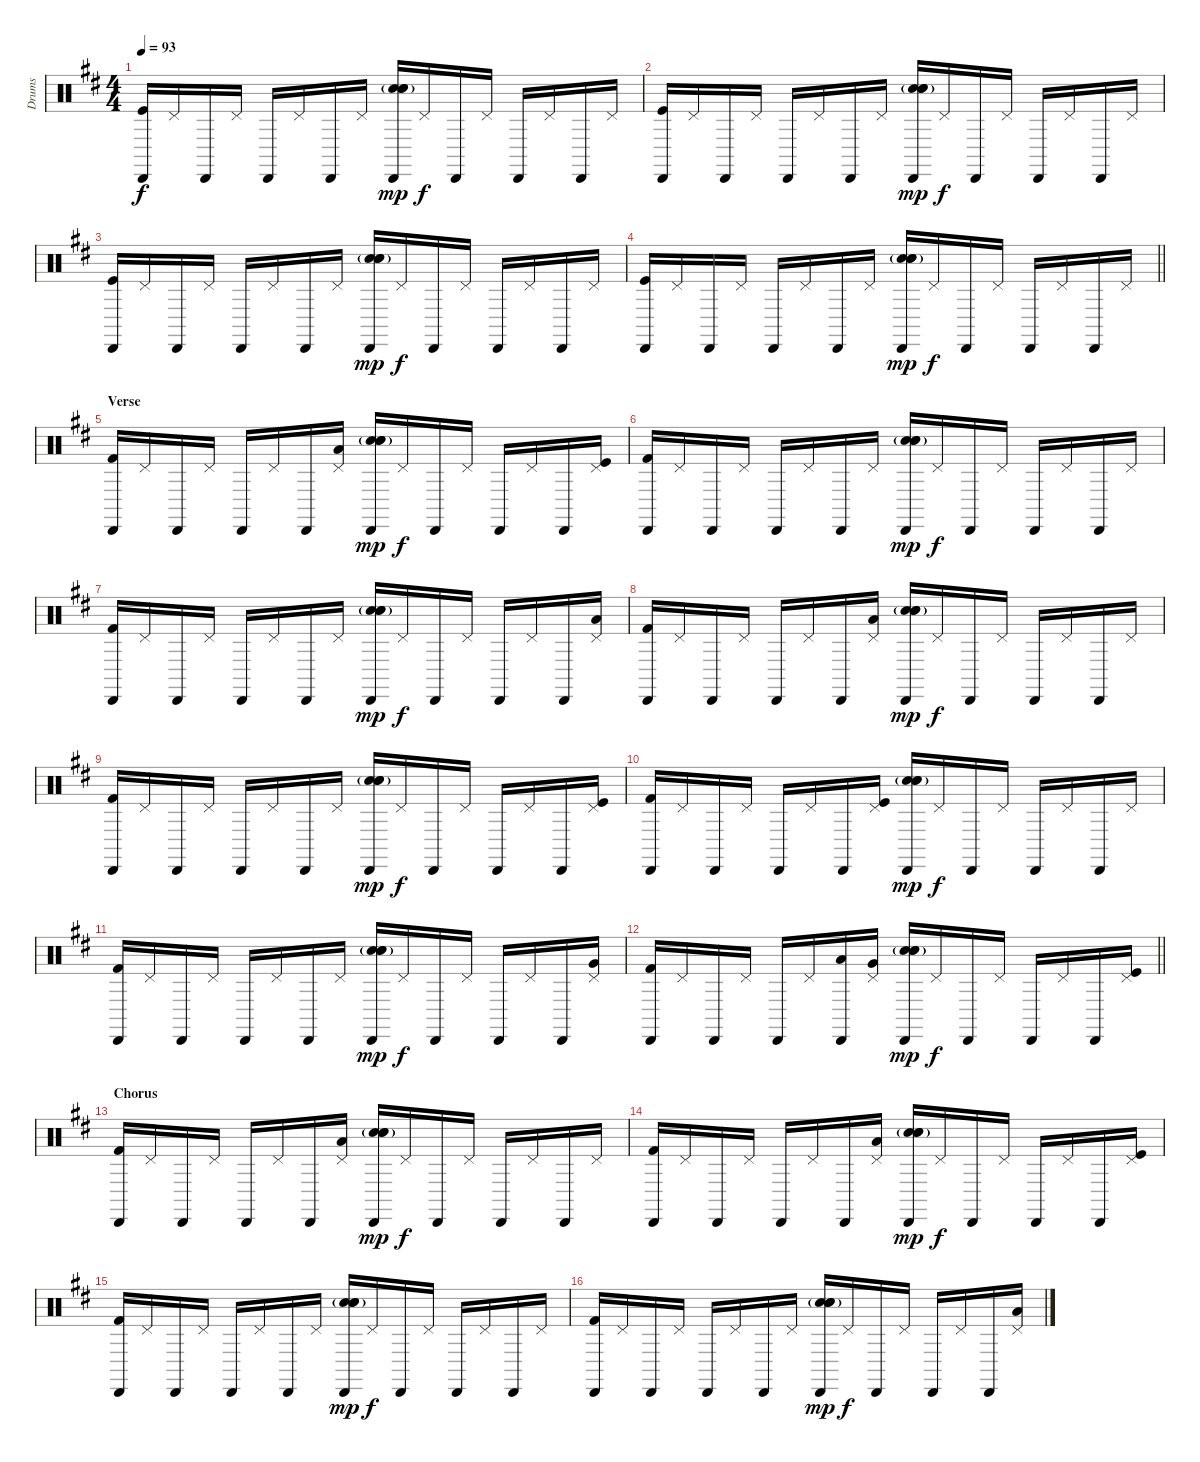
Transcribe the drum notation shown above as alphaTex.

\track ("Drums" "Drums") {instrument percussion}
\staff {score}
\articulation defaults
\ts (4 4)
\tempo 93
\clef neutral
\ks d
("Cabasa (hit)" "Kick (hit)").16{dy f} "Pedal Hi-Hat (hit)".16 "Cabasa (hit)".16 "Pedal Hi-Hat (hit)".16 "Cabasa (hit)".16 "Pedal Hi-Hat (hit)".16 "Cabasa (hit)".16 "Pedal Hi-Hat (hit)".16 ("Cabasa (hit)" "Snare (hit) 2"{g} "Electric Snare (hit)"{g} "Electric Snare (hit)").16{dy mp} "Pedal Hi-Hat (hit)".16{dy f} "Cabasa (hit)".16 "Pedal Hi-Hat (hit)".16 "Cabasa (hit)".16 "Pedal Hi-Hat (hit)".16 "Cabasa (hit)".16 "Pedal Hi-Hat (hit)".16 |
("Cabasa (hit)" "Kick (hit)").16 "Pedal Hi-Hat (hit)".16 "Cabasa (hit)".16 "Pedal Hi-Hat (hit)".16 "Cabasa (hit)".16 "Pedal Hi-Hat (hit)".16 "Cabasa (hit)".16 "Pedal Hi-Hat (hit)".16 ("Cabasa (hit)" "Snare (hit) 2"{g} "Electric Snare (hit)"{g} "Electric Snare (hit)").16{dy mp} "Pedal Hi-Hat (hit)".16{dy f} "Cabasa (hit)".16 "Pedal Hi-Hat (hit)".16 "Cabasa (hit)".16 "Pedal Hi-Hat (hit)".16 "Cabasa (hit)".16 "Pedal Hi-Hat (hit)".16 |
("Cabasa (hit)" "Kick (hit)").16 "Pedal Hi-Hat (hit)".16 "Cabasa (hit)".16 "Pedal Hi-Hat (hit)".16 "Cabasa (hit)".16 "Pedal Hi-Hat (hit)".16 "Cabasa (hit)".16 "Pedal Hi-Hat (hit)".16 ("Cabasa (hit)" "Snare (hit) 2"{g} "Electric Snare (hit)"{g} "Electric Snare (hit)").16{dy mp} "Pedal Hi-Hat (hit)".16{dy f} "Cabasa (hit)".16 "Pedal Hi-Hat (hit)".16 "Cabasa (hit)".16 "Pedal Hi-Hat (hit)".16 "Cabasa (hit)".16 "Pedal Hi-Hat (hit)".16 |
\barLineRight lightlight
("Cabasa (hit)" "Kick (hit)").16 "Pedal Hi-Hat (hit)".16 "Cabasa (hit)".16 "Pedal Hi-Hat (hit)".16 "Cabasa (hit)".16 "Pedal Hi-Hat (hit)".16 "Cabasa (hit)".16 "Pedal Hi-Hat (hit)".16 ("Cabasa (hit)" "Snare (hit) 2"{g} "Electric Snare (hit)"{g} "Electric Snare (hit)").16{dy mp} "Pedal Hi-Hat (hit)".16{dy f} "Cabasa (hit)".16 "Pedal Hi-Hat (hit)".16 "Cabasa (hit)".16 "Pedal Hi-Hat (hit)".16 "Cabasa (hit)".16 "Pedal Hi-Hat (hit)".16 |
\section ("" "Verse")
("Cabasa (hit)" "Kick (hit) 2").16 "Pedal Hi-Hat (hit)".16 "Cabasa (hit)".16 "Pedal Hi-Hat (hit)".16 "Cabasa (hit)".16 "Pedal Hi-Hat (hit)".16 "Cabasa (hit)".16 ("Pedal Hi-Hat (hit)" "Low Tom (hit)").16 ("Cabasa (hit)" "Snare (hit) 2"{g} "Electric Snare (hit)"{g} "Electric Snare (hit)").16{dy mp} "Pedal Hi-Hat (hit)".16{dy f} "Cabasa (hit)".16 "Pedal Hi-Hat (hit)".16 "Cabasa (hit)".16 "Pedal Hi-Hat (hit)".16 "Cabasa (hit)".16 ("Pedal Hi-Hat (hit)" "Kick (hit)").16 |
("Cabasa (hit)" "Kick (hit) 2").16 "Pedal Hi-Hat (hit)".16 "Cabasa (hit)".16 "Pedal Hi-Hat (hit)".16 "Cabasa (hit)".16 "Pedal Hi-Hat (hit)".16 "Cabasa (hit)".16 "Pedal Hi-Hat (hit)".16 ("Cabasa (hit)" "Snare (hit) 2"{g} "Electric Snare (hit)"{g} "Electric Snare (hit)").16{dy mp} "Pedal Hi-Hat (hit)".16{dy f} "Cabasa (hit)".16 "Pedal Hi-Hat (hit)".16 "Cabasa (hit)".16 "Pedal Hi-Hat (hit)".16 "Cabasa (hit)".16 "Pedal Hi-Hat (hit)".16 |
("Cabasa (hit)" "Kick (hit) 2").16 "Pedal Hi-Hat (hit)".16 "Cabasa (hit)".16 "Pedal Hi-Hat (hit)".16 "Cabasa (hit)".16 "Pedal Hi-Hat (hit)".16 "Cabasa (hit)".16 "Pedal Hi-Hat (hit)".16 ("Cabasa (hit)" "Snare (hit) 2"{g} "Electric Snare (hit)"{g} "Electric Snare (hit)").16{dy mp} "Pedal Hi-Hat (hit)".16{dy f} "Cabasa (hit)".16 "Pedal Hi-Hat (hit)".16 "Cabasa (hit)".16 "Pedal Hi-Hat (hit)".16 "Cabasa (hit)".16 ("Pedal Hi-Hat (hit)" "Low Tom (hit)").16 |
("Cabasa (hit)" "Kick (hit) 2").16 "Pedal Hi-Hat (hit)".16 "Cabasa (hit)".16 "Pedal Hi-Hat (hit)".16 "Cabasa (hit)".16 "Pedal Hi-Hat (hit)".16 "Cabasa (hit)".16 ("Pedal Hi-Hat (hit)" "Low Tom (hit)").16 ("Cabasa (hit)" "Snare (hit) 2"{g} "Electric Snare (hit)"{g} "Electric Snare (hit)").16{dy mp} "Pedal Hi-Hat (hit)".16{dy f} "Cabasa (hit)".16 "Pedal Hi-Hat (hit)".16 "Cabasa (hit)".16 "Pedal Hi-Hat (hit)".16 "Cabasa (hit)".16 "Pedal Hi-Hat (hit)".16 |
("Cabasa (hit)" "Kick (hit) 2").16 "Pedal Hi-Hat (hit)".16 "Cabasa (hit)".16 "Pedal Hi-Hat (hit)".16 "Cabasa (hit)".16 "Pedal Hi-Hat (hit)".16 "Cabasa (hit)".16 "Pedal Hi-Hat (hit)".16 ("Cabasa (hit)" "Snare (hit) 2"{g} "Electric Snare (hit)"{g} "Electric Snare (hit)").16{dy mp} "Pedal Hi-Hat (hit)".16{dy f} "Cabasa (hit)".16 "Pedal Hi-Hat (hit)".16 "Cabasa (hit)".16 "Pedal Hi-Hat (hit)".16 "Cabasa (hit)".16 ("Pedal Hi-Hat (hit)" "Kick (hit)").16 |
("Cabasa (hit)" "Kick (hit) 2").16 "Pedal Hi-Hat (hit)".16 "Cabasa (hit)".16 "Pedal Hi-Hat (hit)".16 "Cabasa (hit)".16 "Pedal Hi-Hat (hit)".16 "Cabasa (hit)".16 ("Pedal Hi-Hat (hit)" "Kick (hit)").16 ("Cabasa (hit)" "Snare (hit) 2"{g} "Electric Snare (hit)"{g} "Electric Snare (hit)").16{dy mp} "Pedal Hi-Hat (hit)".16{dy f} "Cabasa (hit)".16 "Pedal Hi-Hat (hit)".16 "Cabasa (hit)".16 "Pedal Hi-Hat (hit)".16 "Cabasa (hit)".16 "Pedal Hi-Hat (hit)".16 |
("Cabasa (hit)" "Kick (hit) 2").16 "Pedal Hi-Hat (hit)".16 "Cabasa (hit)".16 "Pedal Hi-Hat (hit)".16 "Cabasa (hit)".16 "Pedal Hi-Hat (hit)".16 "Cabasa (hit)".16 "Pedal Hi-Hat (hit)".16 ("Cabasa (hit)" "Snare (hit) 2"{g} "Electric Snare (hit)"{g} "Electric Snare (hit)").16{dy mp} "Pedal Hi-Hat (hit)".16{dy f} "Cabasa (hit)".16 "Pedal Hi-Hat (hit)".16 "Cabasa (hit)".16 "Pedal Hi-Hat (hit)".16 "Cabasa (hit)".16 ("Pedal Hi-Hat (hit)" "Very Low Tom (hit)").16 |
\barLineRight lightlight
("Cabasa (hit)" "Kick (hit) 2").16 "Pedal Hi-Hat (hit)".16 "Cabasa (hit)".16 "Pedal Hi-Hat (hit)".16 "Cabasa (hit)".16 "Pedal Hi-Hat (hit)".16 ("Cabasa (hit)" "Low Tom (hit)").16 ("Pedal Hi-Hat (hit)" "Very Low Tom (hit)").16 ("Cabasa (hit)" "Snare (hit) 2"{g} "Electric Snare (hit)"{g} "Electric Snare (hit)").16{dy mp} "Pedal Hi-Hat (hit)".16{dy f} "Cabasa (hit)".16 "Pedal Hi-Hat (hit)".16 "Cabasa (hit)".16 "Pedal Hi-Hat (hit)".16 "Cabasa (hit)".16 ("Pedal Hi-Hat (hit)" "Kick (hit)").16 |
\section ("" "Chorus")
("Cabasa (hit)" "Kick (hit) 2").16 "Pedal Hi-Hat (hit)".16 "Cabasa (hit)".16 "Pedal Hi-Hat (hit)".16 "Cabasa (hit)".16 "Pedal Hi-Hat (hit)".16 "Cabasa (hit)".16 ("Pedal Hi-Hat (hit)" "Low Tom (hit)").16 ("Cabasa (hit)" "Snare (hit) 2"{g} "Electric Snare (hit)"{g} "Electric Snare (hit)").16{dy mp} "Pedal Hi-Hat (hit)".16{dy f} "Cabasa (hit)".16 "Pedal Hi-Hat (hit)".16 "Cabasa (hit)".16 "Pedal Hi-Hat (hit)".16 "Cabasa (hit)".16 "Pedal Hi-Hat (hit)".16 |
("Cabasa (hit)" "Kick (hit) 2").16 "Pedal Hi-Hat (hit)".16 "Cabasa (hit)".16 "Pedal Hi-Hat (hit)".16 "Cabasa (hit)".16 "Pedal Hi-Hat (hit)".16 "Cabasa (hit)".16 ("Pedal Hi-Hat (hit)" "Low Tom (hit)").16 ("Cabasa (hit)" "Snare (hit) 2"{g} "Electric Snare (hit)"{g} "Electric Snare (hit)").16{dy mp} "Pedal Hi-Hat (hit)".16{dy f} "Cabasa (hit)".16 "Pedal Hi-Hat (hit)".16 "Cabasa (hit)".16 "Pedal Hi-Hat (hit)".16 "Cabasa (hit)".16 ("Pedal Hi-Hat (hit)" "Kick (hit)").16 |
("Cabasa (hit)" "Kick (hit) 2").16 "Pedal Hi-Hat (hit)".16 "Cabasa (hit)".16 "Pedal Hi-Hat (hit)".16 "Cabasa (hit)".16 "Pedal Hi-Hat (hit)".16 "Cabasa (hit)".16 "Pedal Hi-Hat (hit)".16 ("Cabasa (hit)" "Snare (hit) 2"{g} "Electric Snare (hit)"{g} "Electric Snare (hit)").16{dy mp} "Pedal Hi-Hat (hit)".16{dy f} "Cabasa (hit)".16 "Pedal Hi-Hat (hit)".16 "Cabasa (hit)".16 "Pedal Hi-Hat (hit)".16 "Cabasa (hit)".16 "Pedal Hi-Hat (hit)".16 |
("Cabasa (hit)" "Kick (hit) 2").16 "Pedal Hi-Hat (hit)".16 "Cabasa (hit)".16 "Pedal Hi-Hat (hit)".16 "Cabasa (hit)".16 "Pedal Hi-Hat (hit)".16 "Cabasa (hit)".16 "Pedal Hi-Hat (hit)".16 ("Cabasa (hit)" "Snare (hit) 2"{g} "Electric Snare (hit)"{g} "Electric Snare (hit)").16{dy mp} "Pedal Hi-Hat (hit)".16{dy f} "Cabasa (hit)".16 "Pedal Hi-Hat (hit)".16 "Cabasa (hit)".16 "Pedal Hi-Hat (hit)".16 "Cabasa (hit)".16 ("Pedal Hi-Hat (hit)" "Low Tom (hit)").16
